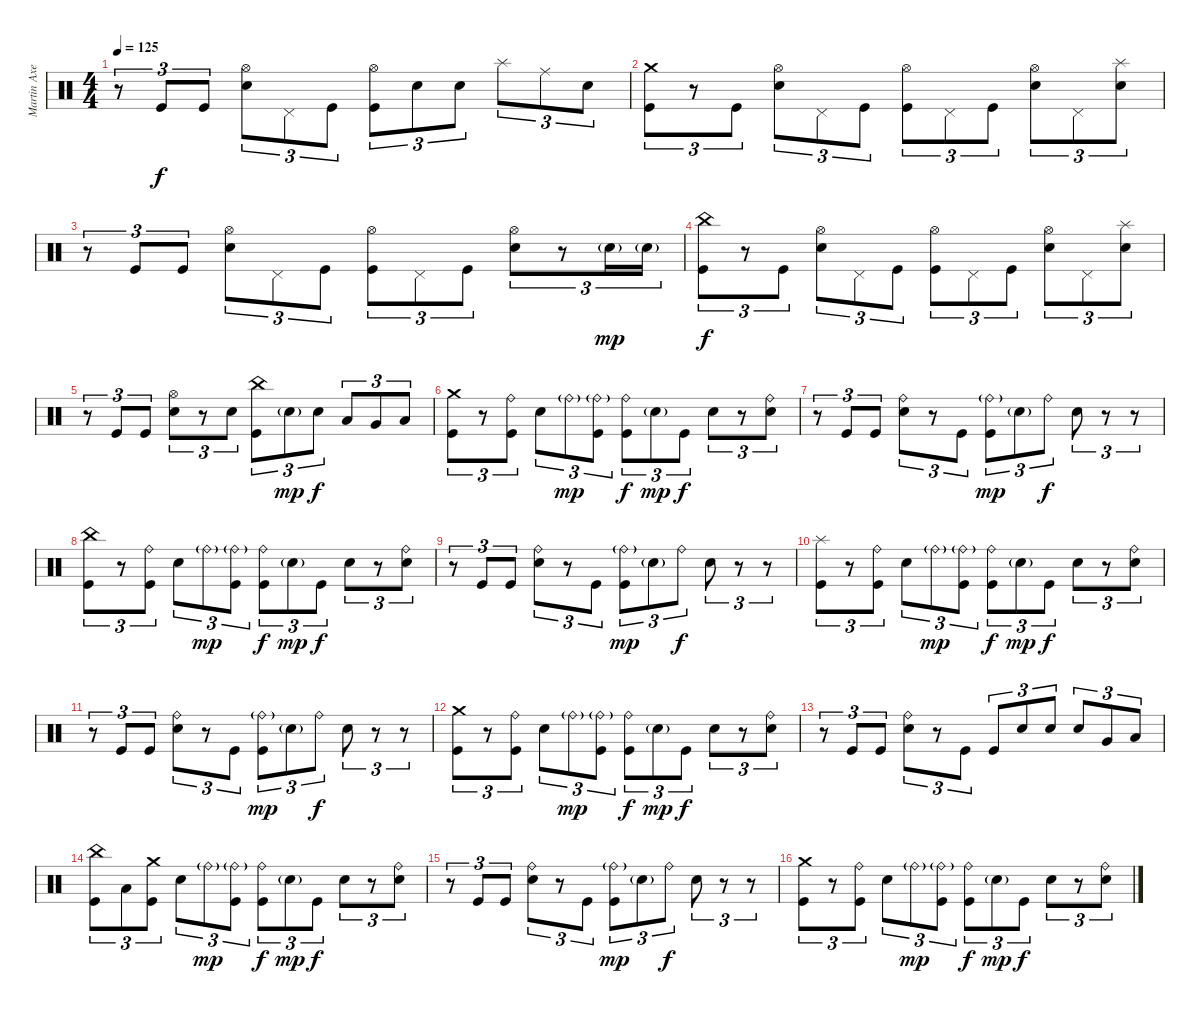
\track ("Martin Axenrot" "Martin Axe") {instrument percussion}
\staff {score}
\articulation defaults
\ts (4 4)
\tempo 125
\clef neutral
\ks c
r.8{tu (3 2) dy f} "Kick (hit)".8{tu (3 2)} "Kick (hit)".8{tu (3 2)} ("Hi-Hat (open)" "Snare (hit) 2").8{tu (3 2)} "Pedal Hi-Hat (hit)".8{tu (3 2)} "Kick (hit)".8{tu (3 2)} ("Hi-Hat (open)" "Kick (hit)").8{tu (3 2)} "Snare (hit) 2".8{tu (3 2)} "Snare (hit) 2".8{tu (3 2)} "Splash (hit)".8{tu (3 2)} "Ride (middle)".8{tu (3 2)} "Snare (hit) 2".8{tu (3 2)} |
("Crash medium (hit)" "Kick (hit)").8{tu (3 2)} r.8{tu (3 2)} "Kick (hit)".8{tu (3 2)} ("Hi-Hat (open)" "Snare (hit) 2").8{tu (3 2)} "Pedal Hi-Hat (hit)".8{tu (3 2)} "Kick (hit)".8{tu (3 2)} ("Hi-Hat (open)" "Kick (hit)").8{tu (3 2)} "Pedal Hi-Hat (hit)".8{tu (3 2)} "Kick (hit)".8{tu (3 2)} ("Hi-Hat (open)" "Snare (hit) 2").8{tu (3 2)} "Pedal Hi-Hat (hit)".8{tu (3 2)} ("Splash (hit)" "Snare (hit) 2").8{tu (3 2)} |
r.8{tu (3 2)} "Kick (hit)".8{tu (3 2)} "Kick (hit)".8{tu (3 2)} ("Hi-Hat (open)" "Snare (hit) 2").8{tu (3 2)} "Pedal Hi-Hat (hit)".8{tu (3 2)} "Kick (hit)".8{tu (3 2)} ("Hi-Hat (open)" "Kick (hit)").8{tu (3 2)} "Pedal Hi-Hat (hit)".8{tu (3 2)} "Kick (hit)".8{tu (3 2)} ("Hi-Hat (open)" "Snare (hit) 2").8{tu (3 2)} r.8{tu (3 2)} "Snare (hit) 2"{g}.16{tu (3 2) dy mp} "Snare (hit) 2"{g}.16{tu (3 2)} |
("China (hit)" "Kick (hit)").8{tu (3 2) dy f} r.8{tu (3 2)} "Kick (hit)".8{tu (3 2)} ("Hi-Hat (open)" "Snare (hit) 2").8{tu (3 2)} "Pedal Hi-Hat (hit)".8{tu (3 2)} "Kick (hit)".8{tu (3 2)} ("Hi-Hat (open)" "Kick (hit)").8{tu (3 2)} "Pedal Hi-Hat (hit)".8{tu (3 2)} "Kick (hit)".8{tu (3 2)} ("Hi-Hat (open)" "Snare (hit) 2").8{tu (3 2)} "Pedal Hi-Hat (hit)".8{tu (3 2)} ("Splash (hit)" "Snare (hit) 2").8{tu (3 2)} |
r.8{tu (3 2)} "Kick (hit)".8{tu (3 2)} "Kick (hit)".8{tu (3 2)} ("Hi-Hat (open)" "Snare (hit) 2").8{tu (3 2)} r.8{tu (3 2)} "Snare (hit) 2".8{tu (3 2)} ("China (hit)" "Kick (hit)").8{tu (3 2)} "Snare (hit) 2"{g}.8{tu (3 2) dy mp} "Snare (hit) 2".8{tu (3 2) dy f} "Low Tom (hit)".8{tu (3 2)} "Very Low Tom (hit)".8{tu (3 2)} "Low Floor Tom (hit)".8{tu (3 2)} |
("Crash medium (hit)" "Kick (hit)").8{tu (3 2)} r.8{tu (3 2)} ("Ride (bell)" "Kick (hit)").8{tu (3 2)} "Snare (hit) 2".8{tu (3 2)} "Ride (bell)"{g}.8{tu (3 2) dy mp} ("Ride (bell)"{g} "Kick (hit)").8{tu (3 2)} ("Ride (bell)" "Kick (hit)").8{tu (3 2) dy f} "Snare (hit) 2"{g}.8{tu (3 2) dy mp} "Kick (hit)".8{tu (3 2) dy f} "Snare (hit) 2".8{tu (3 2)} r.8{tu (3 2)} ("Ride (bell)" "Snare (hit) 2").8{tu (3 2)} |
r.8{tu (3 2)} "Kick (hit)".8{tu (3 2)} "Kick (hit)".8{tu (3 2)} ("Ride (bell)" "Snare (hit) 2").8{tu (3 2)} r.8{tu (3 2)} "Kick (hit)".8{tu (3 2)} ("Ride (bell)"{g} "Kick (hit)").8{tu (3 2) dy mp} "Snare (hit) 2"{g}.8{tu (3 2)} "Ride (bell)".8{tu (3 2) dy f} "Snare (hit) 2".8{tu (3 2)} r.8{tu (3 2)} r.8{tu (3 2)} |
("China (hit)" "Kick (hit)").8{tu (3 2)} r.8{tu (3 2)} ("Ride (bell)" "Kick (hit)").8{tu (3 2)} "Snare (hit) 2".8{tu (3 2)} "Ride (bell)"{g}.8{tu (3 2) dy mp} ("Ride (bell)"{g} "Kick (hit)").8{tu (3 2)} ("Ride (bell)" "Kick (hit)").8{tu (3 2) dy f} "Snare (hit) 2"{g}.8{tu (3 2) dy mp} "Kick (hit)".8{tu (3 2) dy f} "Snare (hit) 2".8{tu (3 2)} r.8{tu (3 2)} ("Ride (bell)" "Snare (hit) 2").8{tu (3 2)} |
r.8{tu (3 2)} "Kick (hit)".8{tu (3 2)} "Kick (hit)".8{tu (3 2)} ("Ride (bell)" "Snare (hit) 2").8{tu (3 2)} r.8{tu (3 2)} "Kick (hit)".8{tu (3 2)} ("Ride (bell)"{g} "Kick (hit)").8{tu (3 2) dy mp} "Snare (hit) 2"{g}.8{tu (3 2)} "Ride (bell)".8{tu (3 2) dy f} "Snare (hit) 2".8{tu (3 2)} r.8{tu (3 2)} r.8{tu (3 2)} |
("Splash (hit)" "Kick (hit)").8{tu (3 2)} r.8{tu (3 2)} ("Ride (bell)" "Kick (hit)").8{tu (3 2)} "Snare (hit) 2".8{tu (3 2)} "Ride (bell)"{g}.8{tu (3 2) dy mp} ("Ride (bell)"{g} "Kick (hit)").8{tu (3 2)} ("Ride (bell)" "Kick (hit)").8{tu (3 2) dy f} "Snare (hit) 2"{g}.8{tu (3 2) dy mp} "Kick (hit)".8{tu (3 2) dy f} "Snare (hit) 2".8{tu (3 2)} r.8{tu (3 2)} ("Ride (bell)" "Snare (hit) 2").8{tu (3 2)} |
r.8{tu (3 2)} "Kick (hit)".8{tu (3 2)} "Kick (hit)".8{tu (3 2)} ("Ride (bell)" "Snare (hit) 2").8{tu (3 2)} r.8{tu (3 2)} "Kick (hit)".8{tu (3 2)} ("Ride (bell)"{g} "Kick (hit)").8{tu (3 2) dy mp} "Snare (hit) 2"{g}.8{tu (3 2)} "Ride (bell)".8{tu (3 2) dy f} "Snare (hit) 2".8{tu (3 2)} r.8{tu (3 2)} r.8{tu (3 2)} |
("Crash medium (hit)" "Kick (hit)").8{tu (3 2)} r.8{tu (3 2)} ("Ride (bell)" "Kick (hit)").8{tu (3 2)} "Snare (hit) 2".8{tu (3 2)} "Ride (bell)"{g}.8{tu (3 2) dy mp} ("Ride (bell)"{g} "Kick (hit)").8{tu (3 2)} ("Ride (bell)" "Kick (hit)").8{tu (3 2) dy f} "Snare (hit) 2"{g}.8{tu (3 2) dy mp} "Kick (hit)".8{tu (3 2) dy f} "Snare (hit) 2".8{tu (3 2)} r.8{tu (3 2)} ("Ride (bell)" "Snare (hit) 2").8{tu (3 2)} |
r.8{tu (3 2)} "Kick (hit)".8{tu (3 2)} "Kick (hit)".8{tu (3 2)} ("Ride (bell)" "Snare (hit) 2").8{tu (3 2)} r.8{tu (3 2)} "Kick (hit)".8{tu (3 2)} "Kick (hit)".8{tu (3 2)} "Snare (hit) 2".8{tu (3 2)} "Snare (hit) 2".8{tu (3 2)} "Snare (hit) 2".8{tu (3 2)} "Very Low Tom (hit)".8{tu (3 2)} "Low Floor Tom (hit)".8{tu (3 2)} |
("China (hit)" "Kick (hit)").8{tu (3 2)} "Low Floor Tom (hit)".8{tu (3 2)} ("Crash medium (hit)" "Kick (hit)").8{tu (3 2)} "Snare (hit) 2".8{tu (3 2)} "Ride (bell)"{g}.8{tu (3 2) dy mp} ("Ride (bell)"{g} "Kick (hit)").8{tu (3 2)} ("Ride (bell)" "Kick (hit)").8{tu (3 2) dy f} "Snare (hit) 2"{g}.8{tu (3 2) dy mp} "Kick (hit)".8{tu (3 2) dy f} "Snare (hit) 2".8{tu (3 2)} r.8{tu (3 2)} ("Ride (bell)" "Snare (hit) 2").8{tu (3 2)} |
r.8{tu (3 2)} "Kick (hit)".8{tu (3 2)} "Kick (hit)".8{tu (3 2)} ("Ride (bell)" "Snare (hit) 2").8{tu (3 2)} r.8{tu (3 2)} "Kick (hit)".8{tu (3 2)} ("Ride (bell)"{g} "Kick (hit)").8{tu (3 2) dy mp} "Snare (hit) 2"{g}.8{tu (3 2)} "Ride (bell)".8{tu (3 2) dy f} "Snare (hit) 2".8{tu (3 2)} r.8{tu (3 2)} r.8{tu (3 2)} |
("Crash medium (hit)" "Kick (hit)").8{tu (3 2)} r.8{tu (3 2)} ("Ride (bell)" "Kick (hit)").8{tu (3 2)} "Snare (hit) 2".8{tu (3 2)} "Ride (bell)"{g}.8{tu (3 2) dy mp} ("Ride (bell)"{g} "Kick (hit)").8{tu (3 2)} ("Ride (bell)" "Kick (hit)").8{tu (3 2) dy f} "Snare (hit) 2"{g}.8{tu (3 2) dy mp} "Kick (hit)".8{tu (3 2) dy f} "Snare (hit) 2".8{tu (3 2)} r.8{tu (3 2)} ("Ride (bell)" "Snare (hit) 2").8{tu (3 2)}
